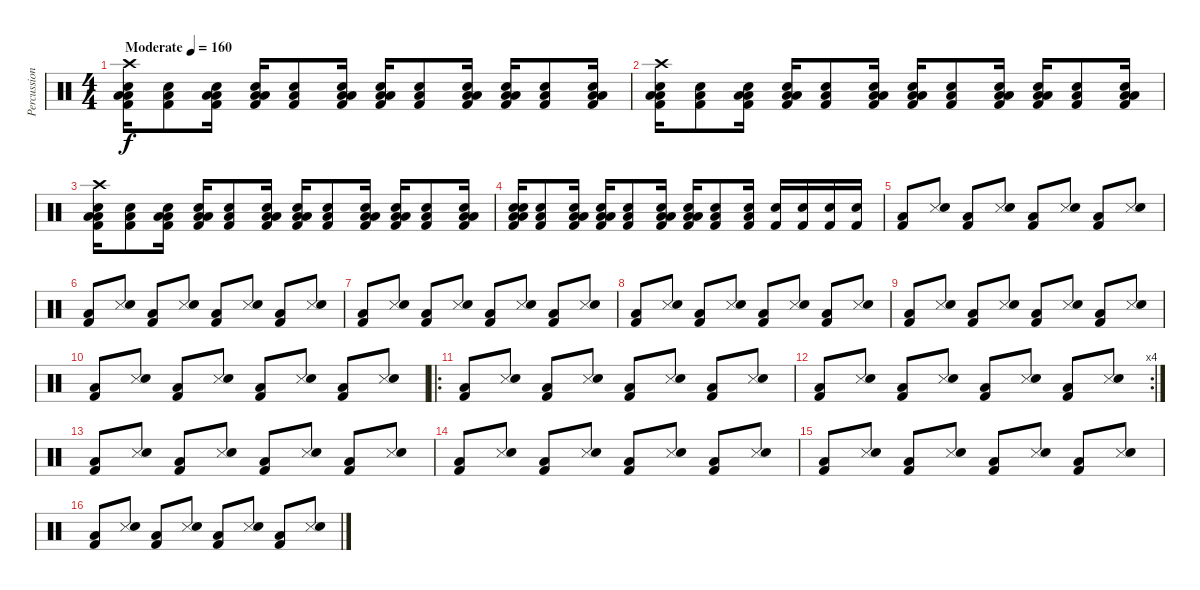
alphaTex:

\track ("Percussion" "Percussion") {instrument percussion}
\staff {score}
\articulation defaults
\ts (4 4)
\tempo (160 "Moderate")
\clef neutral
\ks c
("Crash high (hit)" "Low Floor Tom (hit)" "Low Tom (hit)" "Electric Snare (hit)" "Kick (hit) 2").16{dy f} ("Low Tom (hit)" "Electric Snare (hit)" "Kick (hit) 2").8 ("Low Floor Tom (hit)" "Low Tom (hit)" "Electric Snare (hit)" "Kick (hit) 2").16 ("Low Floor Tom (hit)" "Low Tom (hit)" "Electric Snare (hit)" "Kick (hit) 2").16 ("Low Tom (hit)" "Electric Snare (hit)" "Kick (hit) 2").8 ("Low Floor Tom (hit)" "Low Tom (hit)" "Electric Snare (hit)" "Kick (hit) 2").16 ("Low Floor Tom (hit)" "Low Tom (hit)" "Electric Snare (hit)" "Kick (hit) 2").16 ("Low Tom (hit)" "Electric Snare (hit)" "Kick (hit) 2").8 ("Low Floor Tom (hit)" "Low Tom (hit)" "Electric Snare (hit)" "Kick (hit) 2").16 ("Low Floor Tom (hit)" "Low Tom (hit)" "Electric Snare (hit)" "Kick (hit) 2").16 ("Low Tom (hit)" "Electric Snare (hit)" "Kick (hit) 2").8 ("Low Floor Tom (hit)" "Low Tom (hit)" "Electric Snare (hit)" "Kick (hit) 2").16 |
("Crash high (hit)" "Low Floor Tom (hit)" "Low Tom (hit)" "Electric Snare (hit)" "Kick (hit) 2").16 ("Low Tom (hit)" "Electric Snare (hit)" "Kick (hit) 2").8 ("Low Floor Tom (hit)" "Low Tom (hit)" "Electric Snare (hit)" "Kick (hit) 2").16 ("Low Floor Tom (hit)" "Low Tom (hit)" "Electric Snare (hit)" "Kick (hit) 2").16 ("Low Tom (hit)" "Electric Snare (hit)" "Kick (hit) 2").8 ("Low Floor Tom (hit)" "Low Tom (hit)" "Electric Snare (hit)" "Kick (hit) 2").16 ("Low Floor Tom (hit)" "Low Tom (hit)" "Electric Snare (hit)" "Kick (hit) 2").16 ("Low Tom (hit)" "Electric Snare (hit)" "Kick (hit) 2").8 ("Low Floor Tom (hit)" "Low Tom (hit)" "Electric Snare (hit)" "Kick (hit) 2").16 ("Low Floor Tom (hit)" "Low Tom (hit)" "Electric Snare (hit)" "Kick (hit) 2").16 ("Low Tom (hit)" "Electric Snare (hit)" "Kick (hit) 2").8 ("Low Floor Tom (hit)" "Low Tom (hit)" "Electric Snare (hit)" "Kick (hit) 2").16 |
("Crash high (hit)" "Low Floor Tom (hit)" "Low Tom (hit)" "Electric Snare (hit)" "Kick (hit) 2").16 ("Low Tom (hit)" "Electric Snare (hit)" "Kick (hit) 2").8 ("Low Floor Tom (hit)" "Low Tom (hit)" "Electric Snare (hit)" "Kick (hit) 2").16 ("Low Floor Tom (hit)" "Low Tom (hit)" "Electric Snare (hit)" "Kick (hit) 2").16 ("Low Tom (hit)" "Electric Snare (hit)" "Kick (hit) 2").8 ("Low Floor Tom (hit)" "Low Tom (hit)" "Electric Snare (hit)" "Kick (hit) 2").16 ("Low Floor Tom (hit)" "Low Tom (hit)" "Electric Snare (hit)" "Kick (hit) 2").16 ("Low Tom (hit)" "Electric Snare (hit)" "Kick (hit) 2").8 ("Low Floor Tom (hit)" "Low Tom (hit)" "Electric Snare (hit)" "Kick (hit) 2").16 ("Low Floor Tom (hit)" "Low Tom (hit)" "Electric Snare (hit)" "Kick (hit) 2").16 ("Low Tom (hit)" "Electric Snare (hit)" "Kick (hit) 2").8 ("Low Floor Tom (hit)" "Low Tom (hit)" "Electric Snare (hit)" "Kick (hit) 2").16 |
("Hand Clap (hit)" "Low Floor Tom (hit)" "Low Tom (hit)" "Electric Snare (hit)" "Kick (hit) 2").16 ("Low Tom (hit)" "Electric Snare (hit)" "Kick (hit) 2").8 ("Low Floor Tom (hit)" "Low Tom (hit)" "Electric Snare (hit)" "Kick (hit) 2").16 ("Low Floor Tom (hit)" "Low Tom (hit)" "Electric Snare (hit)" "Kick (hit) 2").16 ("Low Tom (hit)" "Electric Snare (hit)" "Kick (hit) 2").8 ("Low Floor Tom (hit)" "Low Tom (hit)" "Electric Snare (hit)" "Kick (hit) 2").16 ("Low Floor Tom (hit)" "Low Tom (hit)" "Electric Snare (hit)" "Kick (hit) 2").16 ("Low Tom (hit)" "Electric Snare (hit)" "Kick (hit) 2").8 ("Low Tom (hit)" "Electric Snare (hit)" "Kick (hit) 2").16 ("Electric Snare (hit)" "Kick (hit) 2").16 ("Electric Snare (hit)" "Kick (hit) 2").16 ("Electric Snare (hit)" "Kick (hit) 2").16 ("Electric Snare (hit)" "Kick (hit) 2").16 |
("Low Tom (hit)" "Kick (hit) 2").8 ("Snare (side stick) 3" "Electric Snare (hit)").8 ("Low Tom (hit)" "Kick (hit) 2").8 ("Snare (side stick) 3" "Electric Snare (hit)").8 ("Low Tom (hit)" "Kick (hit) 2").8 ("Snare (side stick) 3" "Electric Snare (hit)").8 ("Low Tom (hit)" "Kick (hit) 2").8 ("Snare (side stick) 3" "Electric Snare (hit)").8 |
("Low Tom (hit)" "Kick (hit) 2").8 ("Snare (side stick) 3" "Electric Snare (hit)").8 ("Low Tom (hit)" "Kick (hit) 2").8 ("Snare (side stick) 3" "Electric Snare (hit)").8 ("Low Tom (hit)" "Kick (hit) 2").8 ("Snare (side stick) 3" "Electric Snare (hit)").8 ("Low Tom (hit)" "Kick (hit) 2").8 ("Snare (side stick) 3" "Electric Snare (hit)").8 |
("Low Tom (hit)" "Kick (hit) 2").8 ("Snare (side stick) 3" "Electric Snare (hit)").8 ("Low Tom (hit)" "Kick (hit) 2").8 ("Snare (side stick) 3" "Electric Snare (hit)").8 ("Low Tom (hit)" "Kick (hit) 2").8 ("Snare (side stick) 3" "Electric Snare (hit)").8 ("Low Tom (hit)" "Kick (hit) 2").8 ("Snare (side stick) 3" "Electric Snare (hit)").8 |
("Low Tom (hit)" "Kick (hit) 2").8 ("Snare (side stick) 3" "Electric Snare (hit)").8 ("Low Tom (hit)" "Kick (hit) 2").8 ("Snare (side stick) 3" "Electric Snare (hit)").8 ("Low Tom (hit)" "Kick (hit) 2").8 ("Snare (side stick) 3" "Electric Snare (hit)").8 ("Low Tom (hit)" "Kick (hit) 2").8 ("Snare (side stick) 3" "Electric Snare (hit)").8 |
("Low Tom (hit)" "Kick (hit) 2").8 ("Snare (side stick) 3" "Electric Snare (hit)").8 ("Low Tom (hit)" "Kick (hit) 2").8 ("Snare (side stick) 3" "Electric Snare (hit)").8 ("Low Tom (hit)" "Kick (hit) 2").8 ("Snare (side stick) 3" "Electric Snare (hit)").8 ("Low Tom (hit)" "Kick (hit) 2").8 ("Snare (side stick) 3" "Electric Snare (hit)").8 |
("Low Tom (hit)" "Kick (hit) 2").8 ("Snare (side stick) 3" "Electric Snare (hit)").8 ("Low Tom (hit)" "Kick (hit) 2").8 ("Snare (side stick) 3" "Electric Snare (hit)").8 ("Low Tom (hit)" "Kick (hit) 2").8 ("Snare (side stick) 3" "Electric Snare (hit)").8 ("Low Tom (hit)" "Kick (hit) 2").8 ("Snare (side stick) 3" "Electric Snare (hit)").8 |
\ro
("Low Tom (hit)" "Kick (hit) 2").8 ("Snare (side stick) 3" "Electric Snare (hit)").8 ("Low Tom (hit)" "Kick (hit) 2").8 ("Snare (side stick) 3" "Electric Snare (hit)").8 ("Low Tom (hit)" "Kick (hit) 2").8 ("Snare (side stick) 3" "Electric Snare (hit)").8 ("Low Tom (hit)" "Kick (hit) 2").8 ("Snare (side stick) 3" "Electric Snare (hit)").8 |
\rc 4
("Low Tom (hit)" "Kick (hit) 2").8 ("Snare (side stick) 3" "Electric Snare (hit)").8 ("Low Tom (hit)" "Kick (hit) 2").8 ("Snare (side stick) 3" "Electric Snare (hit)").8 ("Low Tom (hit)" "Kick (hit) 2").8 ("Snare (side stick) 3" "Electric Snare (hit)").8 ("Low Tom (hit)" "Kick (hit) 2").8 ("Snare (side stick) 3" "Electric Snare (hit)").8 |
("Low Tom (hit)" "Kick (hit) 2").8 ("Snare (side stick) 3" "Electric Snare (hit)").8 ("Low Tom (hit)" "Kick (hit) 2").8 ("Snare (side stick) 3" "Electric Snare (hit)").8 ("Low Tom (hit)" "Kick (hit) 2").8 ("Snare (side stick) 3" "Electric Snare (hit)").8 ("Low Tom (hit)" "Kick (hit) 2").8 ("Snare (side stick) 3" "Electric Snare (hit)").8 |
("Low Tom (hit)" "Kick (hit) 2").8 ("Snare (side stick) 3" "Electric Snare (hit)").8 ("Low Tom (hit)" "Kick (hit) 2").8 ("Snare (side stick) 3" "Electric Snare (hit)").8 ("Low Tom (hit)" "Kick (hit) 2").8 ("Snare (side stick) 3" "Electric Snare (hit)").8 ("Low Tom (hit)" "Kick (hit) 2").8 ("Snare (side stick) 3" "Electric Snare (hit)").8 |
("Low Tom (hit)" "Kick (hit) 2").8 ("Snare (side stick) 3" "Electric Snare (hit)").8 ("Low Tom (hit)" "Kick (hit) 2").8 ("Snare (side stick) 3" "Electric Snare (hit)").8 ("Low Tom (hit)" "Kick (hit) 2").8 ("Snare (side stick) 3" "Electric Snare (hit)").8 ("Low Tom (hit)" "Kick (hit) 2").8 ("Snare (side stick) 3" "Electric Snare (hit)").8 |
("Low Tom (hit)" "Kick (hit) 2").8 ("Snare (side stick) 3" "Electric Snare (hit)").8 ("Low Tom (hit)" "Kick (hit) 2").8 ("Snare (side stick) 3" "Electric Snare (hit)").8 ("Low Tom (hit)" "Kick (hit) 2").8 ("Snare (side stick) 3" "Electric Snare (hit)").8 ("Low Tom (hit)" "Kick (hit) 2").8 ("Snare (side stick) 3" "Electric Snare (hit)").8
